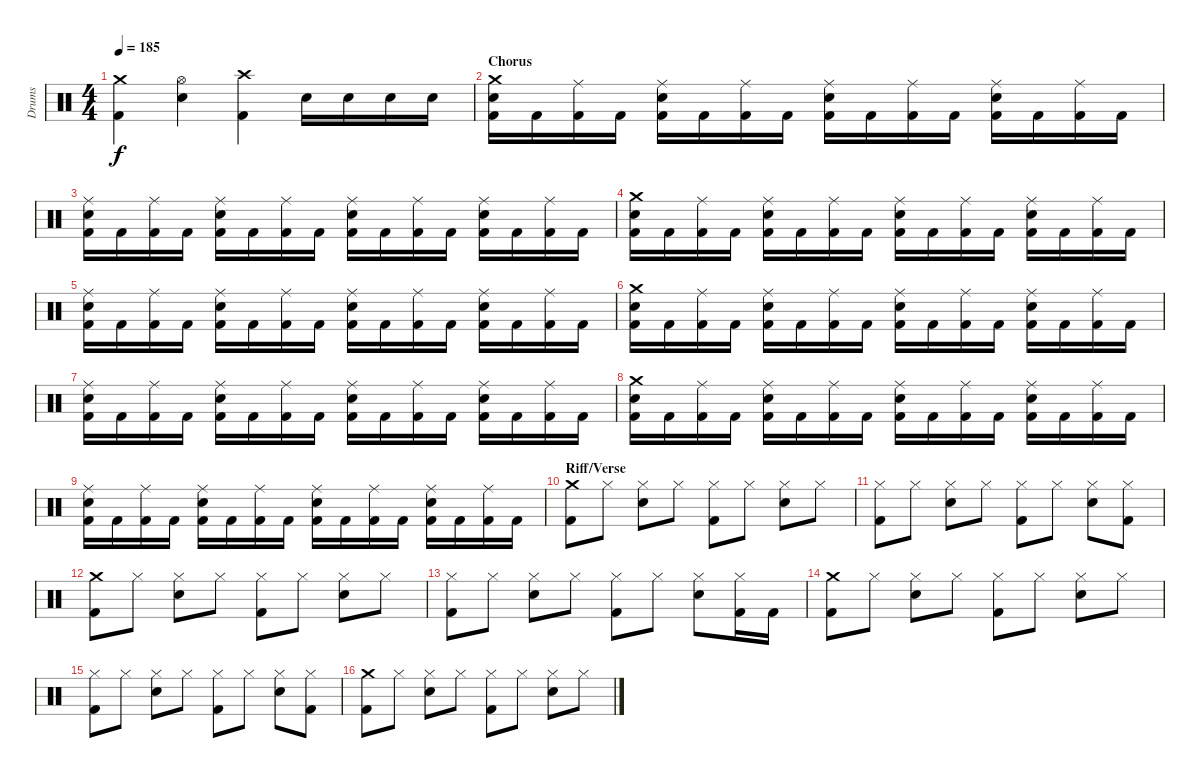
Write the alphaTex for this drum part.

\track ("Drums" "Drums") {instrument percussion}
\staff {score}
\articulation defaults
\ts (4 4)
\tempo 185
\clef neutral
\ks c
("Crash medium (hit)" "Kick (hit) 2").4{dy f} ("Hi-Hat (open)" "Electric Snare (hit)").4 ("Crash high (hit)" "Kick (hit) 2").4 "Electric Snare (hit)".16 "Electric Snare (hit)".16 "Electric Snare (hit)".16 "Electric Snare (hit)".16 |
\section ("" "Chorus")
("Crash medium (hit)" "Electric Snare (hit)" "Kick (hit) 2").16 "Kick (hit) 2".16 ("Ride (middle)" "Kick (hit) 2").16 "Kick (hit) 2".16 ("Ride (middle)" "Electric Snare (hit)" "Kick (hit) 2").16 "Kick (hit) 2".16 ("Ride (middle)" "Kick (hit) 2").16 "Kick (hit) 2".16 ("Ride (middle)" "Electric Snare (hit)" "Kick (hit) 2").16 "Kick (hit) 2".16 ("Ride (middle)" "Kick (hit) 2").16 "Kick (hit) 2".16 ("Ride (middle)" "Electric Snare (hit)" "Kick (hit) 2").16 "Kick (hit) 2".16 ("Ride (middle)" "Kick (hit) 2").16 "Kick (hit) 2".16 |
("Ride (middle)" "Electric Snare (hit)" "Kick (hit) 2").16 "Kick (hit) 2".16 ("Ride (middle)" "Kick (hit) 2").16 "Kick (hit) 2".16 ("Ride (middle)" "Electric Snare (hit)" "Kick (hit) 2").16 "Kick (hit) 2".16 ("Ride (middle)" "Kick (hit) 2").16 "Kick (hit) 2".16 ("Ride (middle)" "Electric Snare (hit)" "Kick (hit) 2").16 "Kick (hit) 2".16 ("Ride (middle)" "Kick (hit) 2").16 "Kick (hit) 2".16 ("Ride (middle)" "Electric Snare (hit)" "Kick (hit) 2").16 "Kick (hit) 2".16 ("Ride (middle)" "Kick (hit) 2").16 "Kick (hit) 2".16 |
("Crash medium (hit)" "Electric Snare (hit)" "Kick (hit) 2").16 "Kick (hit) 2".16 ("Ride (middle)" "Kick (hit) 2").16 "Kick (hit) 2".16 ("Ride (middle)" "Electric Snare (hit)" "Kick (hit) 2").16 "Kick (hit) 2".16 ("Ride (middle)" "Kick (hit) 2").16 "Kick (hit) 2".16 ("Ride (middle)" "Electric Snare (hit)" "Kick (hit) 2").16 "Kick (hit) 2".16 ("Ride (middle)" "Kick (hit) 2").16 "Kick (hit) 2".16 ("Ride (middle)" "Electric Snare (hit)" "Kick (hit) 2").16 "Kick (hit) 2".16 ("Ride (middle)" "Kick (hit) 2").16 "Kick (hit) 2".16 |
("Ride (middle)" "Electric Snare (hit)" "Kick (hit) 2").16 "Kick (hit) 2".16 ("Ride (middle)" "Kick (hit) 2").16 "Kick (hit) 2".16 ("Ride (middle)" "Electric Snare (hit)" "Kick (hit) 2").16 "Kick (hit) 2".16 ("Ride (middle)" "Kick (hit) 2").16 "Kick (hit) 2".16 ("Ride (middle)" "Electric Snare (hit)" "Kick (hit) 2").16 "Kick (hit) 2".16 ("Ride (middle)" "Kick (hit) 2").16 "Kick (hit) 2".16 ("Ride (middle)" "Electric Snare (hit)" "Kick (hit) 2").16 "Kick (hit) 2".16 ("Ride (middle)" "Kick (hit) 2").16 "Kick (hit) 2".16 |
("Crash medium (hit)" "Electric Snare (hit)" "Kick (hit) 2").16 "Kick (hit) 2".16 ("Ride (middle)" "Kick (hit) 2").16 "Kick (hit) 2".16 ("Ride (middle)" "Electric Snare (hit)" "Kick (hit) 2").16 "Kick (hit) 2".16 ("Ride (middle)" "Kick (hit) 2").16 "Kick (hit) 2".16 ("Ride (middle)" "Electric Snare (hit)" "Kick (hit) 2").16 "Kick (hit) 2".16 ("Ride (middle)" "Kick (hit) 2").16 "Kick (hit) 2".16 ("Ride (middle)" "Electric Snare (hit)" "Kick (hit) 2").16 "Kick (hit) 2".16 ("Ride (middle)" "Kick (hit) 2").16 "Kick (hit) 2".16 |
("Ride (middle)" "Electric Snare (hit)" "Kick (hit) 2").16 "Kick (hit) 2".16 ("Ride (middle)" "Kick (hit) 2").16 "Kick (hit) 2".16 ("Ride (middle)" "Electric Snare (hit)" "Kick (hit) 2").16 "Kick (hit) 2".16 ("Ride (middle)" "Kick (hit) 2").16 "Kick (hit) 2".16 ("Ride (middle)" "Electric Snare (hit)" "Kick (hit) 2").16 "Kick (hit) 2".16 ("Ride (middle)" "Kick (hit) 2").16 "Kick (hit) 2".16 ("Ride (middle)" "Electric Snare (hit)" "Kick (hit) 2").16 "Kick (hit) 2".16 ("Ride (middle)" "Kick (hit) 2").16 "Kick (hit) 2".16 |
("Crash medium (hit)" "Electric Snare (hit)" "Kick (hit) 2").16 "Kick (hit) 2".16 ("Ride (middle)" "Kick (hit) 2").16 "Kick (hit) 2".16 ("Ride (middle)" "Electric Snare (hit)" "Kick (hit) 2").16 "Kick (hit) 2".16 ("Ride (middle)" "Kick (hit) 2").16 "Kick (hit) 2".16 ("Ride (middle)" "Electric Snare (hit)" "Kick (hit) 2").16 "Kick (hit) 2".16 ("Ride (middle)" "Kick (hit) 2").16 "Kick (hit) 2".16 ("Ride (middle)" "Electric Snare (hit)" "Kick (hit) 2").16 "Kick (hit) 2".16 ("Ride (middle)" "Kick (hit) 2").16 "Kick (hit) 2".16 |
("Ride (middle)" "Electric Snare (hit)" "Kick (hit) 2").16 "Kick (hit) 2".16 ("Ride (middle)" "Kick (hit) 2").16 "Kick (hit) 2".16 ("Ride (middle)" "Electric Snare (hit)" "Kick (hit) 2").16 "Kick (hit) 2".16 ("Ride (middle)" "Kick (hit) 2").16 "Kick (hit) 2".16 ("Ride (middle)" "Electric Snare (hit)" "Kick (hit) 2").16 "Kick (hit) 2".16 ("Ride (middle)" "Kick (hit) 2").16 "Kick (hit) 2".16 ("Ride (middle)" "Electric Snare (hit)" "Kick (hit) 2").16 "Kick (hit) 2".16 ("Ride (middle)" "Kick (hit) 2").16 "Kick (hit) 2".16 |
\section ("" "Riff/Verse")
("Crash medium (hit)" "Kick (hit) 2").8 "Hi-Hat (closed)".8 ("Hi-Hat (closed)" "Electric Snare (hit)").8 "Hi-Hat (closed)".8 ("Hi-Hat (closed)" "Kick (hit) 2").8 "Hi-Hat (closed)".8 ("Hi-Hat (closed)" "Electric Snare (hit)").8 "Hi-Hat (closed)".8 |
("Hi-Hat (closed)" "Kick (hit) 2").8 "Hi-Hat (closed)".8 ("Hi-Hat (closed)" "Electric Snare (hit)").8 "Hi-Hat (closed)".8 ("Hi-Hat (closed)" "Kick (hit) 2").8 "Hi-Hat (closed)".8 ("Hi-Hat (closed)" "Electric Snare (hit)").8 ("Hi-Hat (closed)" "Kick (hit) 2").8 |
("Crash medium (hit)" "Kick (hit) 2").8 "Hi-Hat (closed)".8 ("Hi-Hat (closed)" "Electric Snare (hit)").8 "Hi-Hat (closed)".8 ("Hi-Hat (closed)" "Kick (hit) 2").8 "Hi-Hat (closed)".8 ("Hi-Hat (closed)" "Electric Snare (hit)").8 "Hi-Hat (closed)".8 |
("Hi-Hat (closed)" "Kick (hit) 2").8 "Hi-Hat (closed)".8 ("Hi-Hat (closed)" "Electric Snare (hit)").8 "Hi-Hat (closed)".8 ("Hi-Hat (closed)" "Kick (hit) 2").8 "Hi-Hat (closed)".8 ("Hi-Hat (closed)" "Electric Snare (hit)").8 ("Hi-Hat (closed)" "Kick (hit) 2").16 "Kick (hit) 2".16 |
("Crash medium (hit)" "Kick (hit) 2").8 "Hi-Hat (closed)".8 ("Hi-Hat (closed)" "Electric Snare (hit)").8 "Hi-Hat (closed)".8 ("Hi-Hat (closed)" "Kick (hit) 2").8 "Hi-Hat (closed)".8 ("Hi-Hat (closed)" "Electric Snare (hit)").8 "Hi-Hat (closed)".8 |
("Hi-Hat (closed)" "Kick (hit) 2").8 "Hi-Hat (closed)".8 ("Hi-Hat (closed)" "Electric Snare (hit)").8 "Hi-Hat (closed)".8 ("Hi-Hat (closed)" "Kick (hit) 2").8 "Hi-Hat (closed)".8 ("Hi-Hat (closed)" "Electric Snare (hit)").8 ("Hi-Hat (closed)" "Kick (hit) 2").8 |
("Crash medium (hit)" "Kick (hit) 2").8 "Hi-Hat (closed)".8 ("Hi-Hat (closed)" "Electric Snare (hit)").8 "Hi-Hat (closed)".8 ("Hi-Hat (closed)" "Kick (hit) 2").8 "Hi-Hat (closed)".8 ("Hi-Hat (closed)" "Electric Snare (hit)").8 "Hi-Hat (closed)".8
